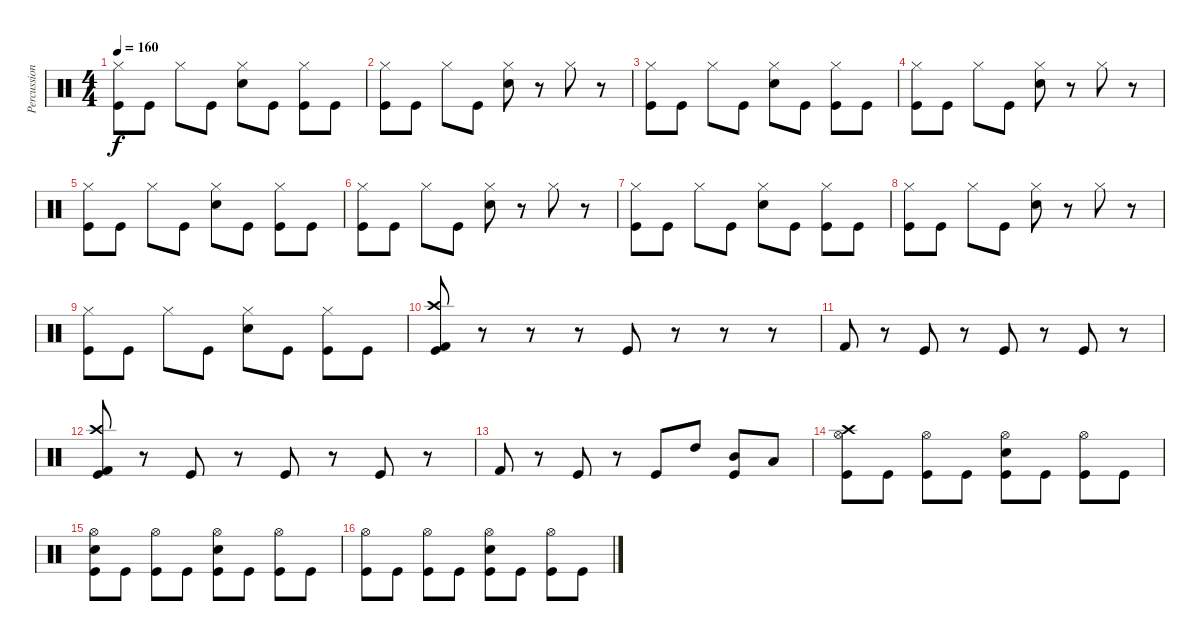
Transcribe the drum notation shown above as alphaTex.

\track ("Percussions" "Percussion") {instrument percussion}
\staff {score}
\articulation defaults
\ts (4 4)
\tempo 160
\clef neutral
\ks c
("Hi-Hat (closed)" "Kick (hit)").8{dy f} "Kick (hit)".8 "Hi-Hat (closed)".8 "Kick (hit)".8 ("Hi-Hat (closed)" "Electric Snare (hit)").8 "Kick (hit)".8 ("Hi-Hat (closed)" "Kick (hit)").8 "Kick (hit)".8 |
("Hi-Hat (closed)" "Kick (hit)").8 "Kick (hit)".8 "Hi-Hat (closed)".8 "Kick (hit)".8 ("Hi-Hat (closed)" "Electric Snare (hit)").8 r.8 "Hi-Hat (closed)".8 r.8 |
("Hi-Hat (closed)" "Kick (hit)").8 "Kick (hit)".8 "Hi-Hat (closed)".8 "Kick (hit)".8 ("Hi-Hat (closed)" "Electric Snare (hit)").8 "Kick (hit)".8 ("Hi-Hat (closed)" "Kick (hit)").8 "Kick (hit)".8 |
("Hi-Hat (closed)" "Kick (hit)").8 "Kick (hit)".8 "Hi-Hat (closed)".8 "Kick (hit)".8 ("Hi-Hat (closed)" "Electric Snare (hit)").8 r.8 "Hi-Hat (closed)".8 r.8 |
("Hi-Hat (closed)" "Kick (hit)").8 "Kick (hit)".8 "Hi-Hat (closed)".8 "Kick (hit)".8 ("Hi-Hat (closed)" "Electric Snare (hit)").8 "Kick (hit)".8 ("Hi-Hat (closed)" "Kick (hit)").8 "Kick (hit)".8 |
("Hi-Hat (closed)" "Kick (hit)").8 "Kick (hit)".8 "Hi-Hat (closed)".8 "Kick (hit)".8 ("Hi-Hat (closed)" "Electric Snare (hit)").8 r.8 "Hi-Hat (closed)".8 r.8 |
("Hi-Hat (closed)" "Kick (hit)").8 "Kick (hit)".8 "Hi-Hat (closed)".8 "Kick (hit)".8 ("Hi-Hat (closed)" "Electric Snare (hit)").8 "Kick (hit)".8 ("Hi-Hat (closed)" "Kick (hit)").8 "Kick (hit)".8 |
("Hi-Hat (closed)" "Kick (hit)").8 "Kick (hit)".8 "Hi-Hat (closed)".8 "Kick (hit)".8 ("Hi-Hat (closed)" "Electric Snare (hit)").8 r.8 "Hi-Hat (closed)".8 r.8 |
("Hi-Hat (closed)" "Kick (hit)").8 "Kick (hit)".8 "Hi-Hat (closed)".8 "Kick (hit)".8 ("Hi-Hat (closed)" "Electric Snare (hit)").8 "Kick (hit)".8 ("Hi-Hat (closed)" "Kick (hit)").8 "Kick (hit)".8 |
("Crash high (hit)" "Kick (hit) 2" "Kick (hit)").8 r.8 r.8 r.8 "Kick (hit)".8 r.8 r.8 r.8 |
"Kick (hit) 2".8 r.8 "Kick (hit)".8 r.8 "Kick (hit)".8 r.8 "Kick (hit)".8 r.8 |
("Crash high (hit)" "Kick (hit) 2" "Kick (hit)").8 r.8 "Kick (hit)".8 r.8 "Kick (hit)".8 r.8 "Kick (hit)".8 r.8 |
"Kick (hit) 2".8 r.8 "Kick (hit)".8 r.8 "Kick (hit)".8 "High Tom (hit)".8 ("Kick (hit)" "Mid Tom (hit)").8 "Low Tom (hit)".8 |
("Crash high (hit)" "Hi-Hat (open)" "Kick (hit)").8 "Kick (hit)".8 ("Hi-Hat (open)" "Kick (hit)").8 "Kick (hit)".8 ("Hi-Hat (open)" "Electric Snare (hit)" "Kick (hit)").8 "Kick (hit)".8 ("Hi-Hat (open)" "Kick (hit)").8 "Kick (hit)".8 |
("Hi-Hat (open)" "Electric Snare (hit)" "Kick (hit)").8 "Kick (hit)".8 ("Hi-Hat (open)" "Kick (hit)").8 "Kick (hit)".8 ("Electric Snare (hit)" "Hi-Hat (open)" "Kick (hit)").8 "Kick (hit)".8 ("Hi-Hat (open)" "Kick (hit)").8 "Kick (hit)".8 |
("Hi-Hat (open)" "Kick (hit)").8 "Kick (hit)".8 ("Hi-Hat (open)" "Kick (hit)").8 "Kick (hit)".8 ("Hi-Hat (open)" "Electric Snare (hit)" "Kick (hit)").8 "Kick (hit)".8 ("Hi-Hat (open)" "Kick (hit)").8 "Kick (hit)".8
